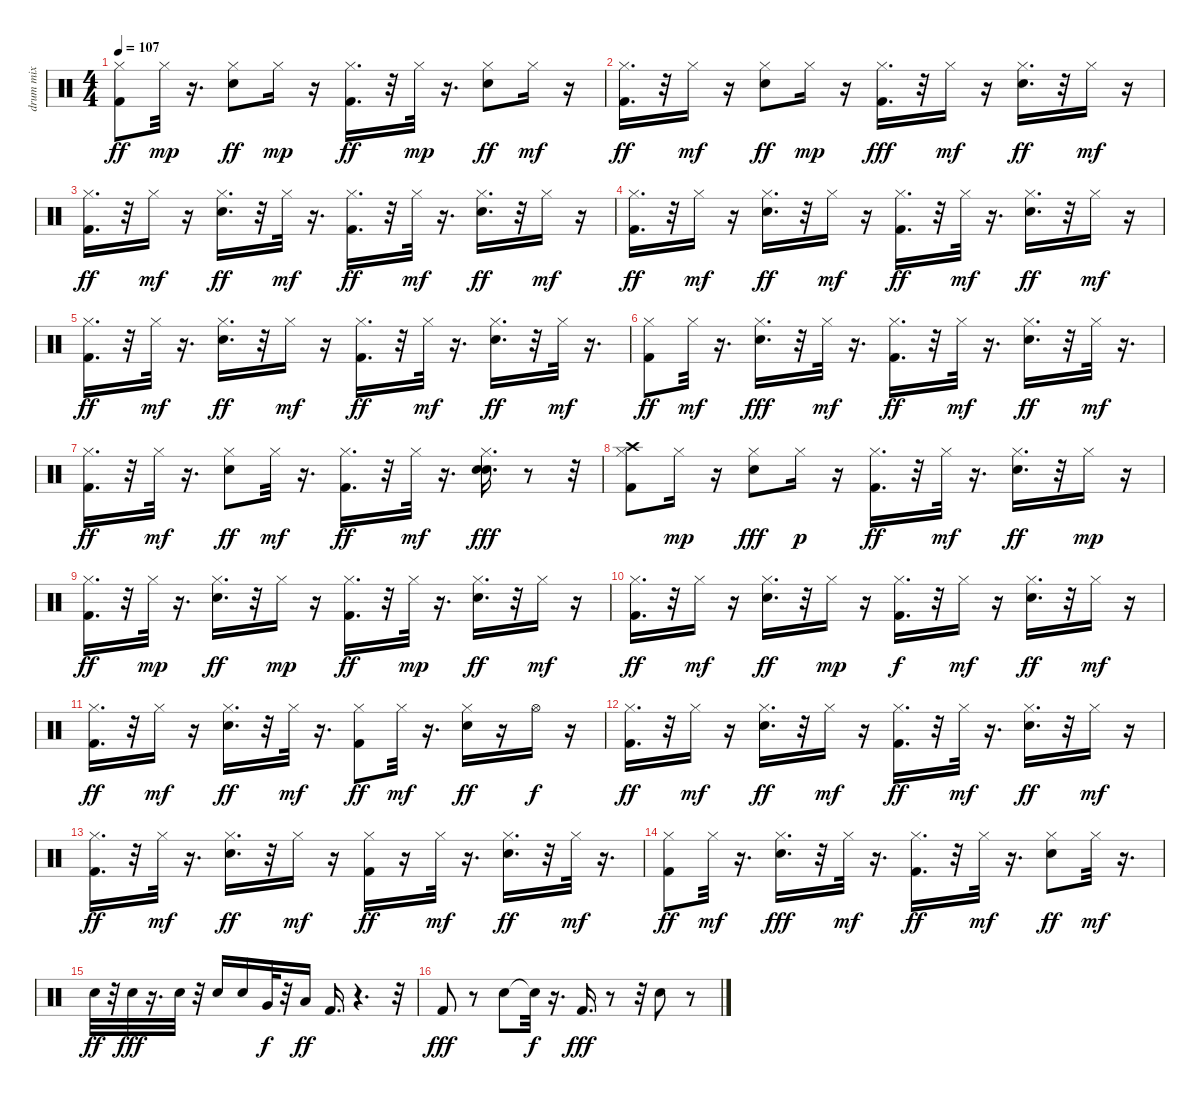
\track ("drum mix" "drum mix") {instrument percussion}
\staff {score}
\articulation defaults
\ts (4 4)
\tempo 107
\clef neutral
\ks c
("Kick (hit) 2" "Hi-Hat (closed)").8{dy ff} "Hi-Hat (closed)".32{dy mp} r.16{d} ("Electric Snare (hit)" "Hi-Hat (closed)").8{dy ff} "Hi-Hat (closed)".16{dy mp} r.16 ("Kick (hit) 2" "Hi-Hat (closed)").16{d dy ff} r.32 "Hi-Hat (closed)".32{dy mp} r.16{d} ("Electric Snare (hit)" "Hi-Hat (closed)").8{dy ff} "Hi-Hat (closed)".16{dy mf} r.16 |
("Kick (hit) 2" "Hi-Hat (closed)").16{d dy ff} r.32 "Hi-Hat (closed)".16{dy mf} r.16 ("Electric Snare (hit)" "Hi-Hat (closed)").8{dy ff} "Hi-Hat (closed)".16{dy mp} r.16 ("Kick (hit) 2" "Hi-Hat (closed)").16{d dy fff} r.32 "Hi-Hat (closed)".16{dy mf} r.16 ("Electric Snare (hit)" "Hi-Hat (closed)").16{d dy ff} r.32 "Hi-Hat (closed)".16{dy mf} r.16 |
("Kick (hit) 2" "Hi-Hat (closed)").16{d dy ff} r.32 "Hi-Hat (closed)".16{dy mf} r.16 ("Electric Snare (hit)" "Hi-Hat (closed)").16{d dy ff} r.32 "Hi-Hat (closed)".32{dy mf} r.16{d} ("Kick (hit) 2" "Hi-Hat (closed)").16{d dy ff} r.32 "Hi-Hat (closed)".32{dy mf} r.16{d} ("Electric Snare (hit)" "Hi-Hat (closed)").16{d dy ff} r.32 "Hi-Hat (closed)".16{dy mf} r.16 |
("Kick (hit) 2" "Hi-Hat (closed)").16{d dy ff} r.32 "Hi-Hat (closed)".16{dy mf} r.16 ("Electric Snare (hit)" "Hi-Hat (closed)").16{d dy ff} r.32 "Hi-Hat (closed)".16{dy mf} r.16 ("Kick (hit) 2" "Hi-Hat (closed)").16{d dy ff} r.32 "Hi-Hat (closed)".32{dy mf} r.16{d} ("Electric Snare (hit)" "Hi-Hat (closed)").16{d dy ff} r.32 "Hi-Hat (closed)".16{dy mf} r.16 |
("Kick (hit) 2" "Hi-Hat (closed)").16{d dy ff} r.32 "Hi-Hat (closed)".32{dy mf} r.16{d} ("Electric Snare (hit)" "Hi-Hat (closed)").16{d dy ff} r.32 "Hi-Hat (closed)".16{dy mf} r.16 ("Kick (hit) 2" "Hi-Hat (closed)").16{d dy ff} r.32 "Hi-Hat (closed)".32{dy mf} r.16{d} ("Electric Snare (hit)" "Hi-Hat (closed)").16{d dy ff} r.32 "Hi-Hat (closed)".32{dy mf} r.16{d} |
("Kick (hit) 2" "Hi-Hat (closed)").8{dy ff} "Hi-Hat (closed)".32{dy mf} r.16{d} ("Electric Snare (hit)" "Hi-Hat (closed)").16{d dy fff} r.32 "Hi-Hat (closed)".32{dy mf} r.16{d} ("Kick (hit) 2" "Hi-Hat (closed)").16{d dy ff} r.32 "Hi-Hat (closed)".32{dy mf} r.16{d} ("Electric Snare (hit)" "Hi-Hat (closed)").16{d dy ff} r.32 "Hi-Hat (closed)".32{dy mf} r.16{d} |
("Kick (hit) 2" "Hi-Hat (closed)").16{d dy ff} r.32 "Hi-Hat (closed)".32{dy mf} r.16{d} ("Electric Snare (hit)" "Hi-Hat (closed)").8{dy ff} "Hi-Hat (closed)".32{dy mf} r.16{d} ("Kick (hit) 2" "Hi-Hat (closed)").16{d dy ff} r.32 "Hi-Hat (closed)".32{dy mf} r.16{d} ("Electric Snare (hit)" "Hi-Hat (closed)" "Electric Snare (hit)").16{d dy fff} r.8 r.32 |
("Kick (hit) 2" "Hi-Hat (closed)" "Crash high (hit)").8 "Hi-Hat (closed)".16{dy mp} r.16 ("Electric Snare (hit)" "Hi-Hat (closed)").8{dy fff} "Hi-Hat (closed)".16{dy p} r.16 ("Kick (hit) 2" "Hi-Hat (closed)").16{d dy ff} r.32 "Hi-Hat (closed)".32{dy mf} r.16{d} ("Electric Snare (hit)" "Hi-Hat (closed)").16{d dy ff} r.32 "Hi-Hat (closed)".16{dy mp} r.16 |
("Kick (hit) 2" "Hi-Hat (closed)").16{d dy ff} r.32 "Hi-Hat (closed)".32{dy mp} r.16{d} ("Electric Snare (hit)" "Hi-Hat (closed)").16{d dy ff} r.32 "Hi-Hat (closed)".16{dy mp} r.16 ("Kick (hit) 2" "Hi-Hat (closed)").16{d dy ff} r.32 "Hi-Hat (closed)".32{dy mp} r.16{d} ("Electric Snare (hit)" "Hi-Hat (closed)").16{d dy ff} r.32 "Hi-Hat (closed)".16{dy mf} r.16 |
("Kick (hit) 2" "Hi-Hat (closed)").16{d dy ff} r.32 "Hi-Hat (closed)".16{dy mf} r.16 ("Electric Snare (hit)" "Hi-Hat (closed)").16{d dy ff} r.32 "Hi-Hat (closed)".16{dy mp} r.16 ("Kick (hit) 2" "Hi-Hat (closed)").16{d dy f} r.32 "Hi-Hat (closed)".16{dy mf} r.16 ("Electric Snare (hit)" "Hi-Hat (closed)").16{d dy ff} r.32 "Hi-Hat (closed)".16{dy mf} r.16 |
("Kick (hit) 2" "Hi-Hat (closed)").16{d dy ff} r.32 "Hi-Hat (closed)".16{dy mf} r.16 ("Electric Snare (hit)" "Hi-Hat (closed)").16{d dy ff} r.32 "Hi-Hat (closed)".32{dy mf} r.16{d} ("Kick (hit) 2" "Hi-Hat (closed)").8{dy ff} "Hi-Hat (closed)".32{dy mf} r.16{d} ("Electric Snare (hit)" "Hi-Hat (closed)").16{dy ff} r.16 "Hi-Hat (open)".16{dy f} r.16 |
("Kick (hit) 2" "Hi-Hat (closed)").16{d dy ff} r.32 "Hi-Hat (closed)".16{dy mf} r.16 ("Electric Snare (hit)" "Hi-Hat (closed)").16{d dy ff} r.32 "Hi-Hat (closed)".16{dy mf} r.16 ("Kick (hit) 2" "Hi-Hat (closed)").16{d dy ff} r.32 "Hi-Hat (closed)".32{dy mf} r.16{d} ("Electric Snare (hit)" "Hi-Hat (closed)").16{d dy ff} r.32 "Hi-Hat (closed)".16{dy mf} r.16 |
("Kick (hit) 2" "Hi-Hat (closed)").16{d dy ff} r.32 "Hi-Hat (closed)".32{dy mf} r.16{d} ("Electric Snare (hit)" "Hi-Hat (closed)").16{d dy ff} r.32 "Hi-Hat (closed)".16{dy mf} r.16 ("Kick (hit) 2" "Hi-Hat (closed)").16{dy ff} r.16 "Hi-Hat (closed)".32{dy mf} r.16{d} ("Electric Snare (hit)" "Hi-Hat (closed)").16{d dy ff} r.32 "Hi-Hat (closed)".32{dy mf} r.16{d} |
("Kick (hit) 2" "Hi-Hat (closed)").8{dy ff} "Hi-Hat (closed)".32{dy mf} r.16{d} ("Electric Snare (hit)" "Hi-Hat (closed)").16{d dy fff} r.32 "Hi-Hat (closed)".32{dy mf} r.16{d} ("Kick (hit) 2" "Hi-Hat (closed)").16{d dy ff} r.32 "Hi-Hat (closed)".32{dy mf} r.16{d} ("Electric Snare (hit)" "Hi-Hat (closed)").8{dy ff} "Hi-Hat (closed)".32{dy mf} r.16{d} |
"Electric Snare (hit)".32{dy ff} r.32 "Electric Snare (hit)".32{dy fff} r.16{d} "Electric Snare (hit)".32 r.32 "Electric Snare (hit)".16 "Electric Snare (hit)".16 "Very Low Tom (hit)".32{dy f} r.32 "Low Floor Tom (hit)".16{dy ff} "Kick (hit) 2".16{d} r.4{d} r.32 |
"Kick (hit) 2".8{dy fff} r.8 "Electric Snare (hit)".8 "Snare (hit)"{t}.32{dy f} r.16{d} "Kick (hit) 2".16{d dy fff} r.8 r.32 "Electric Snare (hit)".8 r.8
